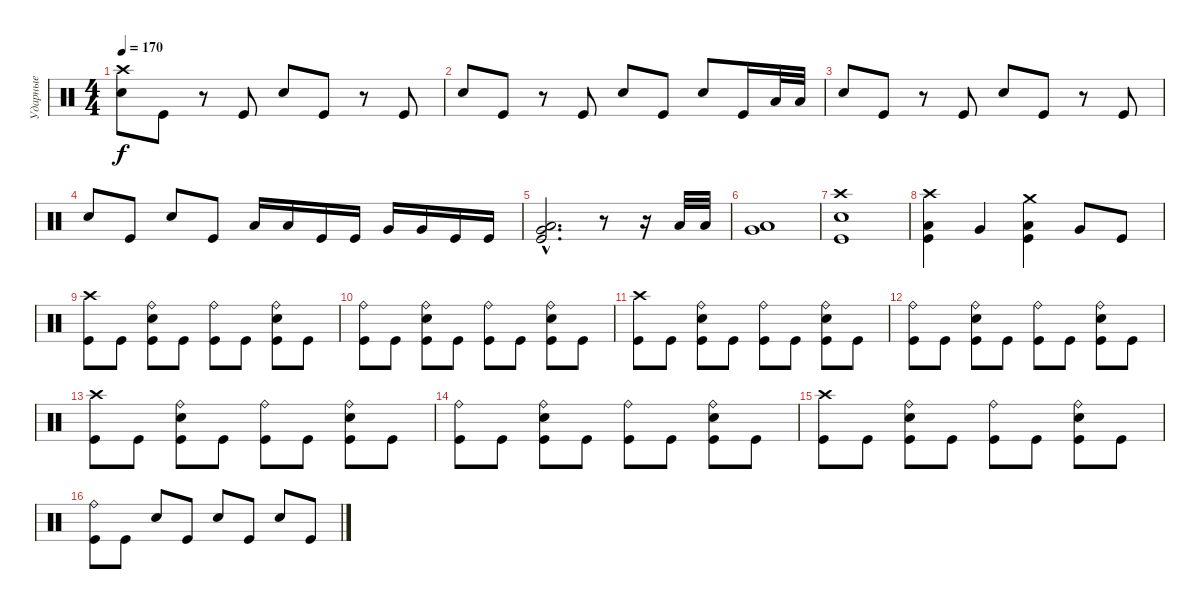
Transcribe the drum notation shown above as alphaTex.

\track ("Ударные" "Ударные") {instrument percussion}
\staff {score}
\articulation defaults
\ts (4 4)
\tempo 170
\clef neutral
\ks c
("Crash high (hit)" "Electric Snare (hit)").8{dy f} "Kick (hit)".8 r.8 "Kick (hit)".8 "Electric Snare (hit)".8 "Kick (hit)".8 r.8 "Kick (hit)".8 |
"Electric Snare (hit)".8 "Kick (hit)".8 r.8 "Kick (hit)".8 "Electric Snare (hit)".8 "Kick (hit)".8 "Electric Snare (hit)".8 "Kick (hit)".16 "Low Tom (hit)".32 "Low Tom (hit)".32 |
"Electric Snare (hit)".8 "Kick (hit)".8 r.8 "Kick (hit)".8 "Electric Snare (hit)".8 "Kick (hit)".8 r.8 "Kick (hit)".8 |
"Electric Snare (hit)".8 "Kick (hit)".8 "Electric Snare (hit)".8 "Kick (hit)".8 "Low Tom (hit)".16 "Low Tom (hit)".16 "Kick (hit)".16 "Kick (hit)".16 "Very Low Tom (hit)".16 "Very Low Tom (hit)".16 "Kick (hit)".16 "Kick (hit)".16 |
("Low Tom (hit)"{hac} "Very Low Tom (hit)"{hac} "Kick (hit)"{hac}).2{d} r.8 r.16 "Low Tom (hit)".32 "Low Tom (hit)".32 |
("Low Tom (hit)" "Very Low Tom (hit)").1 |
("Crash high (hit)" "Electric Snare (hit)" "Kick (hit)").1 |
("Crash high (hit)" "Low Tom (hit)" "Kick (hit)").4 "Very Low Tom (hit)".4 ("Crash medium (hit)" "Low Tom (hit)" "Kick (hit)").4 "Very Low Tom (hit)".8 "Kick (hit)".8 |
("Crash high (hit)" "Kick (hit)").8 "Kick (hit)".8 ("Ride (bell)" "Electric Snare (hit)" "Kick (hit)").8 "Kick (hit)".8 ("Ride (bell)" "Kick (hit)").8 "Kick (hit)".8 ("Ride (bell)" "Electric Snare (hit)" "Kick (hit)").8 "Kick (hit)".8 |
("Ride (bell)" "Kick (hit)").8 "Kick (hit)".8 ("Ride (bell)" "Electric Snare (hit)" "Kick (hit)").8 "Kick (hit)".8 ("Ride (bell)" "Kick (hit)").8 "Kick (hit)".8 ("Ride (bell)" "Electric Snare (hit)" "Kick (hit)").8 "Kick (hit)".8 |
("Crash high (hit)" "Kick (hit)").8 "Kick (hit)".8 ("Ride (bell)" "Electric Snare (hit)" "Kick (hit)").8 "Kick (hit)".8 ("Ride (bell)" "Kick (hit)").8 "Kick (hit)".8 ("Ride (bell)" "Electric Snare (hit)" "Kick (hit)").8 "Kick (hit)".8 |
("Ride (bell)" "Kick (hit)").8 "Kick (hit)".8 ("Ride (bell)" "Electric Snare (hit)" "Kick (hit)").8 "Kick (hit)".8 ("Ride (bell)" "Kick (hit)").8 "Kick (hit)".8 ("Ride (bell)" "Electric Snare (hit)" "Kick (hit)").8 "Kick (hit)".8 |
("Crash high (hit)" "Kick (hit)").8 "Kick (hit)".8 ("Ride (bell)" "Electric Snare (hit)" "Kick (hit)").8 "Kick (hit)".8 ("Ride (bell)" "Kick (hit)").8 "Kick (hit)".8 ("Ride (bell)" "Electric Snare (hit)" "Kick (hit)").8 "Kick (hit)".8 |
("Ride (bell)" "Kick (hit)").8 "Kick (hit)".8 ("Ride (bell)" "Electric Snare (hit)" "Kick (hit)").8 "Kick (hit)".8 ("Ride (bell)" "Kick (hit)").8 "Kick (hit)".8 ("Ride (bell)" "Electric Snare (hit)" "Kick (hit)").8 "Kick (hit)".8 |
("Crash high (hit)" "Kick (hit)").8 "Kick (hit)".8 ("Ride (bell)" "Electric Snare (hit)" "Kick (hit)").8 "Kick (hit)".8 ("Ride (bell)" "Kick (hit)").8 "Kick (hit)".8 ("Ride (bell)" "Electric Snare (hit)" "Kick (hit)").8 "Kick (hit)".8 |
("Ride (bell)" "Kick (hit)").8 "Kick (hit)".8 "Electric Snare (hit)".8 "Kick (hit)".8 "Electric Snare (hit)".8 "Kick (hit)".8 "Electric Snare (hit)".8 "Kick (hit)".8
